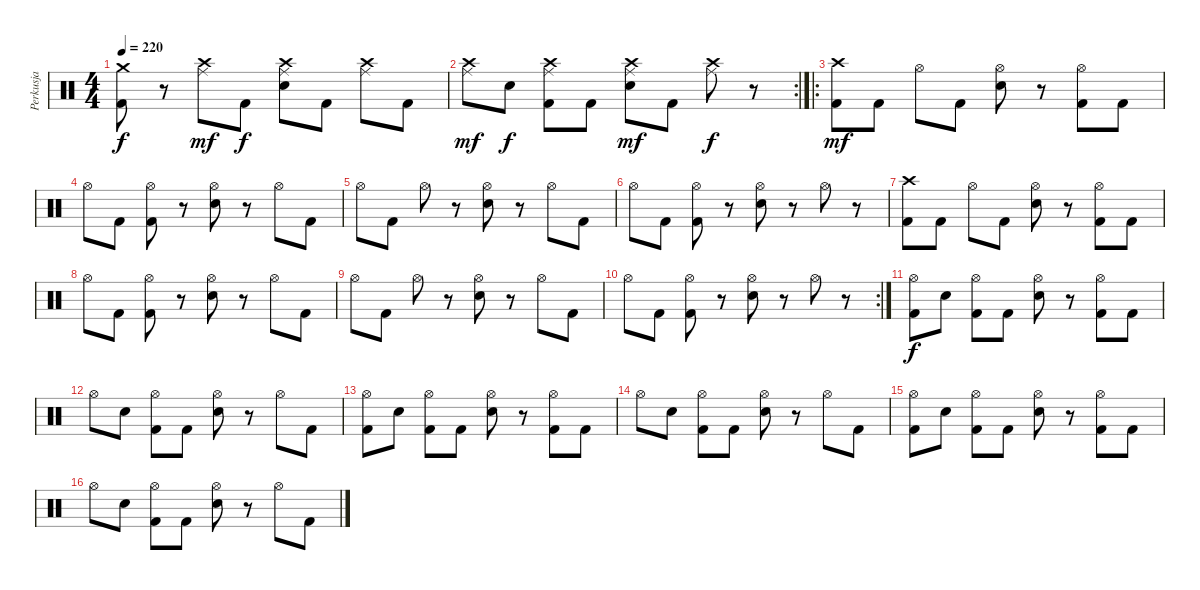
\track ("Perkusja" "Perkusja") {instrument percussion}
\staff {score}
\articulation defaults
\ts (4 4)
\tempo 220
\clef neutral
\ks c
("Crash medium (hit)" "Kick (hit) 2").8{dy f} r.8 ("Crash high (hit)" "Ride (middle)").8{dy mf} "Kick (hit) 2".8{dy f} ("Crash high (hit)" "Snare (hit) 2" "Ride (middle)").8 "Kick (hit) 2".8 ("Crash high (hit)" "Ride (middle)").8 "Kick (hit) 2".8 |
\rc 2
("Crash high (hit)" "Ride (middle)").8{dy mf} "Snare (hit) 2".8{dy f} ("Crash high (hit)" "Kick (hit) 2" "Ride (middle)").8 "Kick (hit) 2".8 ("Crash high (hit)" "Snare (hit) 2" "Ride (middle)").8{dy mf} "Kick (hit) 2".8 ("Crash high (hit)" "Ride (middle)").8{dy f} r.8 |
\ro
("Crash high (hit)" "Kick (hit) 2").8{dy mf} "Kick (hit) 2".8 "Hi-Hat (open)".8 "Kick (hit) 2".8 ("Hi-Hat (open)" "Snare (hit) 2").8 r.8 ("Hi-Hat (open)" "Kick (hit) 2").8 "Kick (hit) 2".8 |
"Hi-Hat (open)".8 "Kick (hit) 2".8 ("Hi-Hat (open)" "Kick (hit) 2").8 r.8 ("Hi-Hat (open)" "Snare (hit) 2").8 r.8 "Hi-Hat (open)".8 "Kick (hit) 2".8 |
"Hi-Hat (open)".8 "Kick (hit) 2".8 "Hi-Hat (open)".8 r.8 ("Hi-Hat (open)" "Snare (hit) 2").8 r.8 "Hi-Hat (open)".8 "Kick (hit) 2".8 |
"Hi-Hat (open)".8 "Kick (hit) 2".8 ("Hi-Hat (open)" "Kick (hit) 2").8 r.8 ("Hi-Hat (open)" "Snare (hit) 2").8 r.8 "Hi-Hat (open)".8 r.8 |
("Crash high (hit)" "Kick (hit) 2").8 "Kick (hit) 2".8 "Hi-Hat (open)".8 "Kick (hit) 2".8 ("Hi-Hat (open)" "Snare (hit) 2").8 r.8 ("Hi-Hat (open)" "Kick (hit) 2").8 "Kick (hit) 2".8 |
"Hi-Hat (open)".8 "Kick (hit) 2".8 ("Hi-Hat (open)" "Kick (hit) 2").8 r.8 ("Hi-Hat (open)" "Snare (hit) 2").8 r.8 "Hi-Hat (open)".8 "Kick (hit) 2".8 |
"Hi-Hat (open)".8 "Kick (hit) 2".8 "Hi-Hat (open)".8 r.8 ("Hi-Hat (open)" "Snare (hit) 2").8 r.8 "Hi-Hat (open)".8 "Kick (hit) 2".8 |
\rc 2 "Hi-Hat (open)".8 "Kick (hit) 2".8
("Hi-Hat (open)" "Kick (hit) 2").8 r.8 ("Hi-Hat (open)" "Snare (hit) 2").8 r.8 "Hi-Hat (open)".8 r.8 |
("Hi-Hat (open)" "Kick (hit) 2").8{dy f} "Snare (hit) 2".8 ("Hi-Hat (open)" "Kick (hit) 2").8 "Kick (hit) 2".8 ("Hi-Hat (open)" "Snare (hit) 2").8 r.8 ("Hi-Hat (open)" "Kick (hit) 2").8 "Kick (hit) 2".8 |
"Hi-Hat (open)".8 "Snare (hit) 2".8 ("Hi-Hat (open)" "Kick (hit) 2").8 "Kick (hit) 2".8 ("Hi-Hat (open)" "Snare (hit) 2").8 r.8 "Hi-Hat (open)".8 "Kick (hit) 2".8 |
("Hi-Hat (open)" "Kick (hit) 2").8 "Snare (hit) 2".8 ("Hi-Hat (open)" "Kick (hit) 2").8 "Kick (hit) 2".8 ("Hi-Hat (open)" "Snare (hit) 2").8 r.8 ("Hi-Hat (open)" "Kick (hit) 2").8 "Kick (hit) 2".8 |
"Hi-Hat (open)".8 "Snare (hit) 2".8 ("Hi-Hat (open)" "Kick (hit) 2").8 "Kick (hit) 2".8 ("Hi-Hat (open)" "Snare (hit) 2").8 r.8 "Hi-Hat (open)".8 "Kick (hit) 2".8 |
("Hi-Hat (open)" "Kick (hit) 2").8 "Snare (hit) 2".8 ("Hi-Hat (open)" "Kick (hit) 2").8 "Kick (hit) 2".8 ("Hi-Hat (open)" "Snare (hit) 2").8 r.8 ("Hi-Hat (open)" "Kick (hit) 2").8 "Kick (hit) 2".8 |
"Hi-Hat (open)".8 "Snare (hit) 2".8 ("Hi-Hat (open)" "Kick (hit) 2").8 "Kick (hit) 2".8 ("Hi-Hat (open)" "Snare (hit) 2").8 r.8 "Hi-Hat (open)".8 "Kick (hit) 2".8
